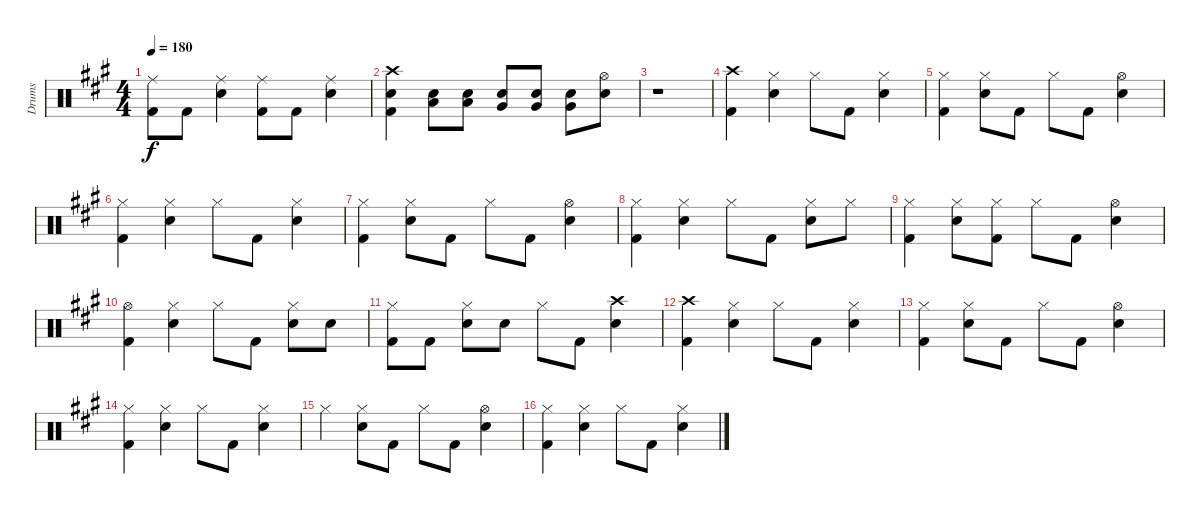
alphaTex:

\track ("Drums" "Drums") {instrument percussion}
\staff {score}
\articulation defaults
\ts (4 4)
\tempo 180
\clef neutral
\ks a
("Ride (middle)" "Kick (hit) 2").8{dy f} "Kick (hit) 2".8 ("Ride (middle)" "Electric Snare (hit)").4 ("Ride (middle)" "Kick (hit) 2").8 "Kick (hit) 2".8 ("Ride (middle)" "Electric Snare (hit)").4 |
("Crash high (hit)" "Electric Snare (hit)" "Kick (hit) 2").4 ("Low Floor Tom (hit)" "Electric Snare (hit)").8 ("Low Floor Tom (hit)" "Electric Snare (hit)").8 ("Very Low Tom (hit)" "Electric Snare (hit)").8 ("Very Low Tom (hit)" "Electric Snare (hit)").8 ("Very Low Tom (hit)" "Electric Snare (hit)").8 ("Hi-Hat (open)" "Electric Snare (hit)").8 |
r.1 |
("Crash high (hit)" "Kick (hit) 2").4 ("Hi-Hat (closed)" "Electric Snare (hit)").4 "Hi-Hat (closed)".8 "Kick (hit) 2".8 ("Hi-Hat (closed)" "Electric Snare (hit)").4 |
("Hi-Hat (closed)" "Kick (hit) 2").4 ("Hi-Hat (closed)" "Electric Snare (hit)").8 "Kick (hit) 2".8 "Hi-Hat (closed)".8 "Kick (hit) 2".8 ("Hi-Hat (open)" "Electric Snare (hit)").4 |
("Hi-Hat (closed)" "Kick (hit) 2").4 ("Hi-Hat (closed)" "Electric Snare (hit)").4 "Hi-Hat (closed)".8 "Kick (hit) 2".8 ("Hi-Hat (closed)" "Electric Snare (hit)").4 |
("Hi-Hat (closed)" "Kick (hit) 2").4 ("Hi-Hat (closed)" "Electric Snare (hit)").8 "Kick (hit) 2".8 "Hi-Hat (closed)".8 "Kick (hit) 2".8 ("Hi-Hat (open)" "Electric Snare (hit)").4 |
("Hi-Hat (closed)" "Kick (hit) 2").4 ("Hi-Hat (closed)" "Electric Snare (hit)").4 "Hi-Hat (closed)".8 "Kick (hit) 2".8 ("Hi-Hat (closed)" "Electric Snare (hit)").8 "Hi-Hat (closed)".8 |
("Hi-Hat (closed)" "Kick (hit) 2").4 ("Hi-Hat (closed)" "Electric Snare (hit)").8 ("Hi-Hat (closed)" "Kick (hit) 2").8 "Hi-Hat (closed)".8 "Kick (hit) 2".8 ("Hi-Hat (open)" "Electric Snare (hit)").4 |
("Hi-Hat (open)" "Kick (hit) 2").4 ("Hi-Hat (closed)" "Electric Snare (hit)").4 "Hi-Hat (closed)".8 "Kick (hit) 2".8 ("Hi-Hat (closed)" "Electric Snare (hit)").8 "Electric Snare (hit)".8 |
("Hi-Hat (closed)" "Kick (hit) 2").8 "Kick (hit) 2".8 ("Hi-Hat (closed)" "Electric Snare (hit)").8 "Electric Snare (hit)".8 "Hi-Hat (closed)".8 "Kick (hit) 2".8 ("Crash high (hit)" "Electric Snare (hit)").4 |
("Crash high (hit)" "Kick (hit) 2").4 ("Hi-Hat (closed)" "Electric Snare (hit)").4 "Hi-Hat (closed)".8 "Kick (hit) 2".8 ("Hi-Hat (closed)" "Electric Snare (hit)").4 |
("Hi-Hat (closed)" "Kick (hit) 2").4 ("Hi-Hat (closed)" "Electric Snare (hit)").8 "Kick (hit) 2".8 "Hi-Hat (closed)".8 "Kick (hit) 2".8 ("Hi-Hat (open)" "Electric Snare (hit)").4 |
("Hi-Hat (closed)" "Kick (hit) 2").4 ("Hi-Hat (closed)" "Electric Snare (hit)").4 "Hi-Hat (closed)".8 "Kick (hit) 2".8 ("Hi-Hat (closed)" "Electric Snare (hit)").4 |
"Hi-Hat (closed)".4 ("Hi-Hat (closed)" "Electric Snare (hit)").8 "Kick (hit) 2".8 "Hi-Hat (closed)".8 "Kick (hit) 2".8 ("Hi-Hat (open)" "Electric Snare (hit)").4 |
("Hi-Hat (closed)" "Kick (hit) 2").4 ("Hi-Hat (closed)" "Electric Snare (hit)").4 "Hi-Hat (closed)".8 "Kick (hit) 2".8 ("Hi-Hat (closed)" "Electric Snare (hit)").4
